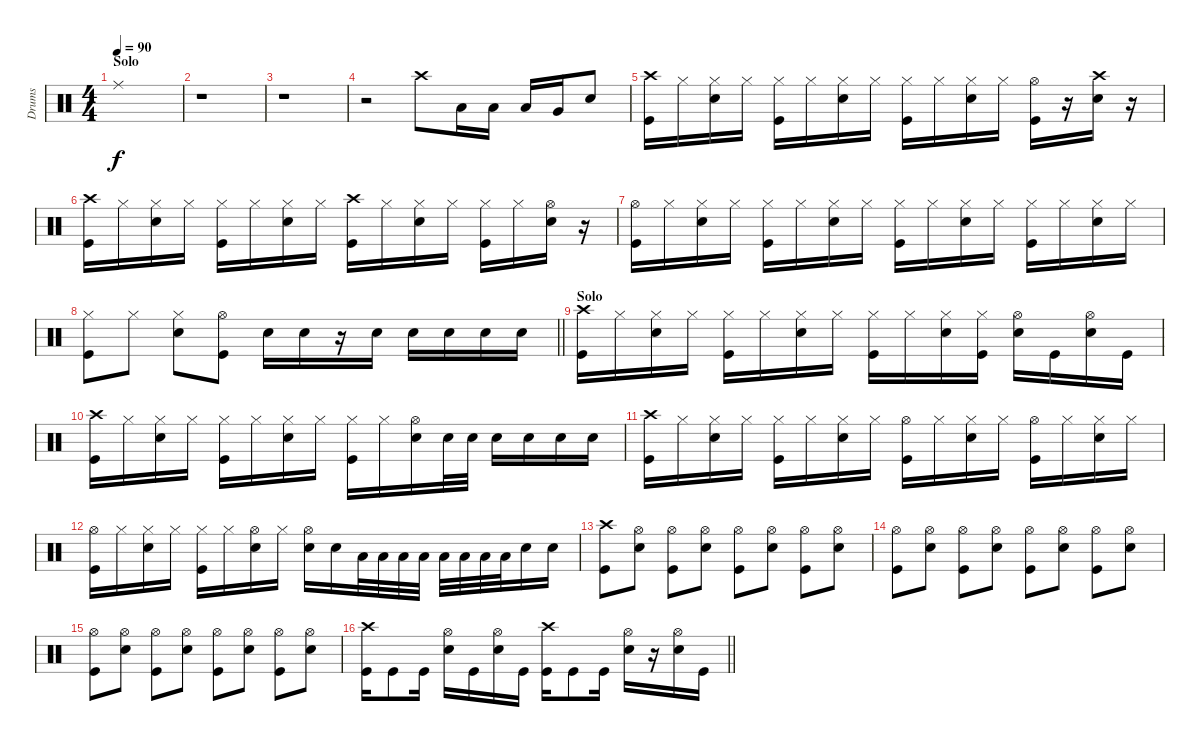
\track ("Drums" "Drums") {instrument percussion}
\staff {score}
\articulation defaults
\ts (4 4)
\section ("" "Solo")
\tempo 90
\clef neutral
\ks c "Ride (middle)".1{dy f}
|
r.1 |
r.1 |
r.2 "Crash high (hit)".8 "Low Tom (hit)".16 "Low Tom (hit)".16 "Low Floor Tom (hit)".16 "Very Low Tom (hit)".16 "Snare (hit) 2".8 |
("Crash high (hit)" "Kick (hit)").16 "Hi-Hat (closed)".16 ("Hi-Hat (closed)" "Snare (hit) 2").16 "Hi-Hat (closed)".16 ("Hi-Hat (closed)" "Kick (hit)").16 "Hi-Hat (closed)".16 ("Hi-Hat (closed)" "Snare (hit) 2").16 "Hi-Hat (closed)".16 ("Hi-Hat (closed)" "Kick (hit)").16 "Hi-Hat (closed)".16 ("Hi-Hat (closed)" "Snare (hit) 2").16 "Hi-Hat (closed)".16 ("Hi-Hat (open)" "Kick (hit)").16 r.16 ("Crash high (hit)" "Snare (hit) 2").16 r.16 |
("Crash high (hit)" "Kick (hit)").16 "Hi-Hat (closed)".16 ("Hi-Hat (closed)" "Snare (hit) 2").16 "Hi-Hat (closed)".16 ("Hi-Hat (closed)" "Kick (hit)").16 "Hi-Hat (closed)".16 ("Hi-Hat (closed)" "Snare (hit) 2").16 "Hi-Hat (closed)".16 ("Crash high (hit)" "Kick (hit)").16 "Hi-Hat (closed)".16 ("Hi-Hat (closed)" "Snare (hit) 2").16 "Hi-Hat (closed)".16 ("Hi-Hat (closed)" "Kick (hit)").16 "Hi-Hat (closed)".16 ("Hi-Hat (open)" "Snare (hit) 2").16 r.16 |
("Hi-Hat (open)" "Kick (hit)").16 "Hi-Hat (closed)".16 ("Hi-Hat (closed)" "Snare (hit) 2").16 "Hi-Hat (closed)".16 ("Hi-Hat (closed)" "Kick (hit)").16 "Hi-Hat (closed)".16 ("Hi-Hat (closed)" "Snare (hit) 2").16 "Hi-Hat (closed)".16 ("Hi-Hat (closed)" "Kick (hit)").16 "Hi-Hat (closed)".16 ("Hi-Hat (closed)" "Snare (hit) 2").16 "Hi-Hat (closed)".16 ("Hi-Hat (closed)" "Kick (hit)").16 "Hi-Hat (closed)".16 ("Hi-Hat (closed)" "Snare (hit) 2").16 "Hi-Hat (closed)".16 |
\barLineRight lightlight
("Hi-Hat (closed)" "Kick (hit)").8 "Hi-Hat (closed)".8 ("Hi-Hat (closed)" "Snare (hit) 2").8 ("Hi-Hat (open)" "Kick (hit)").8 "Electric Snare (hit)".16 "Electric Snare (hit)".16 r.16 "Electric Snare (hit)".16 "Electric Snare (hit)".16 "Electric Snare (hit)".16 "Electric Snare (hit)".16 "Electric Snare (hit)".16 |
\section ("" "Solo")
("Crash high (hit)" "Kick (hit)").16 "Hi-Hat (closed)".16 ("Hi-Hat (closed)" "Snare (hit) 2").16 "Hi-Hat (closed)".16 ("Hi-Hat (closed)" "Kick (hit)").16 "Hi-Hat (closed)".16 ("Hi-Hat (closed)" "Snare (hit) 2").16 "Hi-Hat (closed)".16 ("Hi-Hat (closed)" "Kick (hit)").16 "Hi-Hat (closed)".16 ("Hi-Hat (closed)" "Snare (hit) 2").16 ("Hi-Hat (closed)" "Kick (hit)").16 ("Hi-Hat (open)" "Snare (hit) 2").16 "Kick (hit)".16 ("Hi-Hat (open)" "Snare (hit) 2").16 "Kick (hit)".16 |
("Crash high (hit)" "Kick (hit)").16 "Hi-Hat (closed)".16 ("Hi-Hat (closed)" "Snare (hit) 2").16 "Hi-Hat (closed)".16 ("Hi-Hat (closed)" "Kick (hit)").16 "Hi-Hat (closed)".16 ("Hi-Hat (closed)" "Snare (hit) 2").16 "Hi-Hat (closed)".16 ("Hi-Hat (closed)" "Kick (hit)").16 "Hi-Hat (closed)".16 ("Hi-Hat (open)" "Snare (hit) 2").16 "Snare (hit) 2".32 "Snare (hit) 2".32 "Snare (hit) 2".16 "Snare (hit) 2".16 "Snare (hit) 2".16 "Snare (hit) 2".16 |
("Crash high (hit)" "Kick (hit)").16 "Hi-Hat (closed)".16 ("Hi-Hat (closed)" "Snare (hit) 2").16 "Hi-Hat (closed)".16 ("Hi-Hat (closed)" "Kick (hit)").16 "Hi-Hat (closed)".16 ("Hi-Hat (closed)" "Snare (hit) 2").16 "Hi-Hat (closed)".16 ("Hi-Hat (open)" "Kick (hit)").16 "Hi-Hat (closed)".16 ("Hi-Hat (closed)" "Snare (hit) 2").16 "Hi-Hat (closed)".16 ("Hi-Hat (open)" "Kick (hit)").16 "Hi-Hat (closed)".16 ("Hi-Hat (closed)" "Snare (hit) 2").16 "Hi-Hat (closed)".16 |
("Hi-Hat (open)" "Kick (hit)").16 "Hi-Hat (closed)".16 ("Hi-Hat (closed)" "Snare (hit) 2").16 "Hi-Hat (closed)".16 ("Hi-Hat (closed)" "Kick (hit)").16 "Hi-Hat (closed)".16 ("Hi-Hat (open)" "Snare (hit) 2").16 "Hi-Hat (closed)".16 ("Hi-Hat (open)" "Snare (hit) 2").16 "Snare (hit) 2".16 "Low Tom (hit)".32 "Low Tom (hit)".32 "Low Floor Tom (hit)".32 "Low Floor Tom (hit)".32 "Low Floor Tom (hit)".32 "Low Floor Tom (hit)".32 "Low Floor Tom (hit)".32 "Low Floor Tom (hit)".32 "Snare (hit) 2".16 "Snare (hit) 2".16 |
("Crash high (hit)" "Kick (hit)").8 ("Hi-Hat (open)" "Snare (hit) 2").8 ("Hi-Hat (open)" "Kick (hit)").8 ("Hi-Hat (open)" "Snare (hit) 2").8 ("Hi-Hat (open)" "Kick (hit)").8 ("Hi-Hat (open)" "Snare (hit) 2").8 ("Hi-Hat (open)" "Kick (hit)").8 ("Hi-Hat (open)" "Snare (hit) 2").8 |
("Hi-Hat (open)" "Kick (hit)").8 ("Hi-Hat (open)" "Snare (hit) 2").8 ("Hi-Hat (open)" "Kick (hit)").8 ("Hi-Hat (open)" "Snare (hit) 2").8 ("Hi-Hat (open)" "Kick (hit)").8 ("Hi-Hat (open)" "Snare (hit) 2").8 ("Hi-Hat (open)" "Kick (hit)").8 ("Hi-Hat (open)" "Snare (hit) 2").8 |
("Hi-Hat (open)" "Kick (hit)").8 ("Hi-Hat (open)" "Snare (hit) 2").8 ("Hi-Hat (open)" "Kick (hit)").8 ("Hi-Hat (open)" "Snare (hit) 2").8 ("Hi-Hat (open)" "Kick (hit)").8 ("Hi-Hat (open)" "Snare (hit) 2").8 ("Hi-Hat (open)" "Kick (hit)").8 ("Hi-Hat (open)" "Snare (hit) 2").8 |
\barLineRight lightlight
("Crash high (hit)" "Kick (hit)").16 "Kick (hit)".8 "Kick (hit)".16 ("Hi-Hat (open)" "Snare (hit) 2").16 "Kick (hit)".16 ("Hi-Hat (open)" "Snare (hit) 2").16 "Kick (hit)".16 ("Crash high (hit)" "Kick (hit)").16 "Kick (hit)".8 "Kick (hit)".16 ("Hi-Hat (open)" "Snare (hit) 2").16 r.16 ("Hi-Hat (open)" "Snare (hit) 2").16 "Kick (hit)".16
